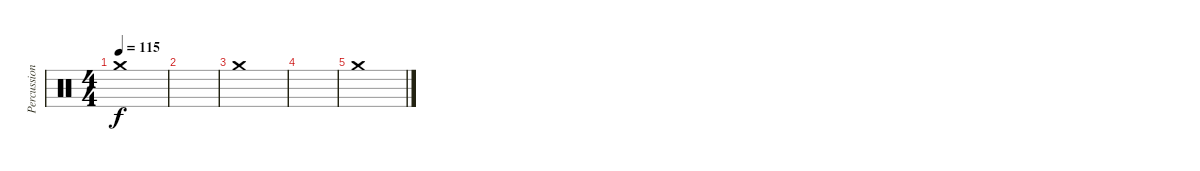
\track ("Percussions" "Percussion") {instrument percussion}
\staff {score}
\articulation defaults
\ts (4 4)
\tempo 115
\clef neutral
\ks c "Crash medium (hit)".1{dy f}
|
|
"Crash medium (hit)".1 |
|
"Crash medium (hit)".1
